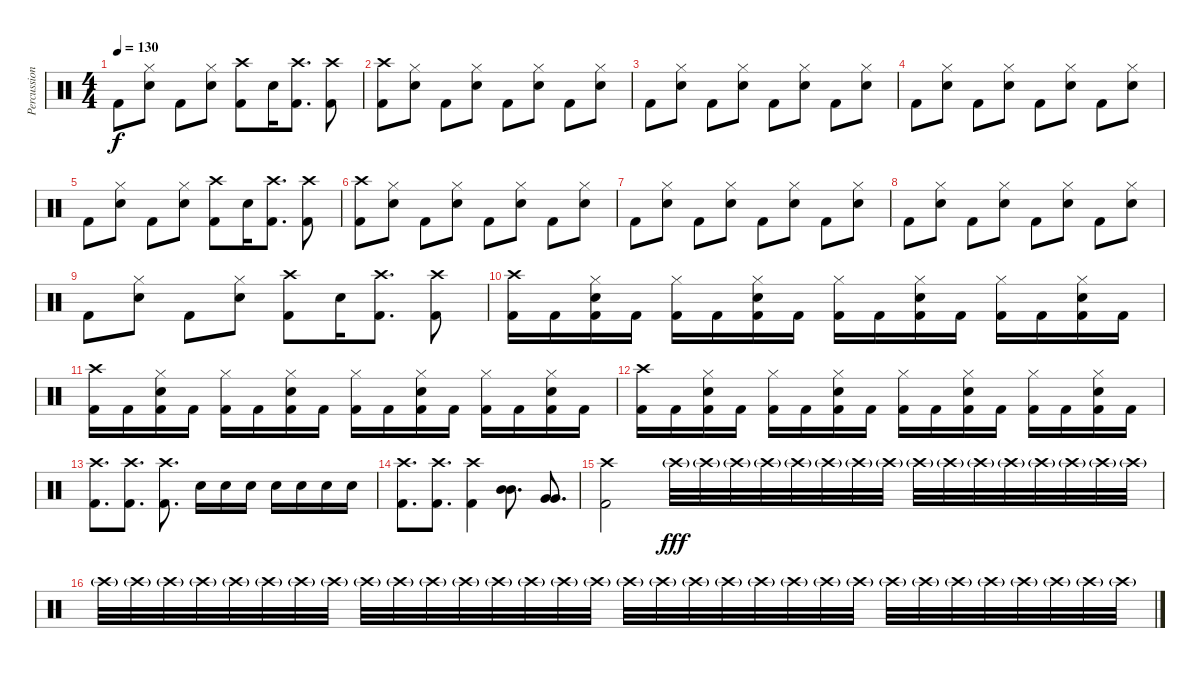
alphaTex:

\track ("Percussion" "Percussion") {instrument percussion}
\staff {score}
\articulation defaults
\ts (4 4)
\tempo 130
\clef neutral
\ks c "Kick (hit) 2".8{dy f}
("Hi-Hat (closed)" "Snare (hit) 2").8 "Kick (hit) 2".8 ("Hi-Hat (closed)" "Snare (hit) 2").8 ("Crash high (hit)" "Kick (hit) 2").8 "Snare (hit) 2".16 ("Crash high (hit)" "Kick (hit) 2").8{d} ("Crash high (hit)" "Kick (hit) 2").8 |
("Crash high (hit)" "Kick (hit) 2").8 ("Hi-Hat (closed)" "Snare (hit) 2").8 "Kick (hit) 2".8 ("Hi-Hat (closed)" "Snare (hit) 2").8 "Kick (hit) 2".8 ("Hi-Hat (closed)" "Snare (hit) 2").8 "Kick (hit) 2".8 ("Hi-Hat (closed)" "Snare (hit) 2").8 |
"Kick (hit) 2".8 ("Hi-Hat (closed)" "Snare (hit) 2").8 "Kick (hit) 2".8 ("Hi-Hat (closed)" "Snare (hit) 2").8 "Kick (hit) 2".8 ("Hi-Hat (closed)" "Snare (hit) 2").8 "Kick (hit) 2".8 ("Hi-Hat (closed)" "Snare (hit) 2").8 |
"Kick (hit) 2".8 ("Hi-Hat (closed)" "Snare (hit) 2").8 "Kick (hit) 2".8 ("Hi-Hat (closed)" "Snare (hit) 2").8 "Kick (hit) 2".8 ("Hi-Hat (closed)" "Snare (hit) 2").8 "Kick (hit) 2".8 ("Hi-Hat (closed)" "Snare (hit) 2").8 |
"Kick (hit) 2".8 ("Hi-Hat (closed)" "Snare (hit) 2").8 "Kick (hit) 2".8 ("Hi-Hat (closed)" "Snare (hit) 2").8 ("Crash high (hit)" "Kick (hit) 2").8 "Snare (hit) 2".16 ("Crash high (hit)" "Kick (hit) 2").8{d} ("Crash high (hit)" "Kick (hit) 2").8 |
("Crash high (hit)" "Kick (hit) 2").8 ("Hi-Hat (closed)" "Snare (hit) 2").8 "Kick (hit) 2".8 ("Hi-Hat (closed)" "Snare (hit) 2").8 "Kick (hit) 2".8 ("Hi-Hat (closed)" "Snare (hit) 2").8 "Kick (hit) 2".8 ("Hi-Hat (closed)" "Snare (hit) 2").8 |
"Kick (hit) 2".8 ("Hi-Hat (closed)" "Snare (hit) 2").8 "Kick (hit) 2".8 ("Hi-Hat (closed)" "Snare (hit) 2").8 "Kick (hit) 2".8 ("Hi-Hat (closed)" "Snare (hit) 2").8 "Kick (hit) 2".8 ("Hi-Hat (closed)" "Snare (hit) 2").8 |
"Kick (hit) 2".8 ("Hi-Hat (closed)" "Snare (hit) 2").8 "Kick (hit) 2".8 ("Hi-Hat (closed)" "Snare (hit) 2").8 "Kick (hit) 2".8 ("Hi-Hat (closed)" "Snare (hit) 2").8 "Kick (hit) 2".8 ("Hi-Hat (closed)" "Snare (hit) 2").8 |
"Kick (hit) 2".8 ("Hi-Hat (closed)" "Snare (hit) 2").8 "Kick (hit) 2".8 ("Hi-Hat (closed)" "Snare (hit) 2").8 ("Crash high (hit)" "Kick (hit) 2").8 "Snare (hit) 2".16 ("Crash high (hit)" "Kick (hit) 2").8{d} ("Crash high (hit)" "Kick (hit) 2").8 |
("Crash high (hit)" "Kick (hit) 2").16 "Kick (hit) 2".16 ("Hi-Hat (closed)" "Snare (hit) 2" "Kick (hit) 2").16 "Kick (hit) 2".16 ("Hi-Hat (closed)" "Kick (hit) 2").16 "Kick (hit) 2".16 ("Hi-Hat (closed)" "Snare (hit) 2" "Kick (hit) 2").16 "Kick (hit) 2".16 ("Hi-Hat (closed)" "Kick (hit) 2").16 "Kick (hit) 2".16 ("Hi-Hat (closed)" "Snare (hit) 2" "Kick (hit) 2").16 "Kick (hit) 2".16 ("Hi-Hat (closed)" "Kick (hit) 2").16 "Kick (hit) 2".16 ("Hi-Hat (closed)" "Snare (hit) 2" "Kick (hit) 2").16 "Kick (hit) 2".16 |
("Crash high (hit)" "Kick (hit) 2").16 "Kick (hit) 2".16 ("Hi-Hat (closed)" "Snare (hit) 2" "Kick (hit) 2").16 "Kick (hit) 2".16 ("Hi-Hat (closed)" "Kick (hit) 2").16 "Kick (hit) 2".16 ("Hi-Hat (closed)" "Snare (hit) 2" "Kick (hit) 2").16 "Kick (hit) 2".16 ("Hi-Hat (closed)" "Kick (hit) 2").16 "Kick (hit) 2".16 ("Hi-Hat (closed)" "Snare (hit) 2" "Kick (hit) 2").16 "Kick (hit) 2".16 ("Hi-Hat (closed)" "Kick (hit) 2").16 "Kick (hit) 2".16 ("Hi-Hat (closed)" "Snare (hit) 2" "Kick (hit) 2").16 "Kick (hit) 2".16 |
("Crash high (hit)" "Kick (hit) 2").16 "Kick (hit) 2".16 ("Hi-Hat (closed)" "Snare (hit) 2" "Kick (hit) 2").16 "Kick (hit) 2".16 ("Hi-Hat (closed)" "Kick (hit) 2").16 "Kick (hit) 2".16 ("Hi-Hat (closed)" "Snare (hit) 2" "Kick (hit) 2").16 "Kick (hit) 2".16 ("Hi-Hat (closed)" "Kick (hit) 2").16 "Kick (hit) 2".16 ("Hi-Hat (closed)" "Snare (hit) 2" "Kick (hit) 2").16 "Kick (hit) 2".16 ("Hi-Hat (closed)" "Kick (hit) 2").16 "Kick (hit) 2".16 ("Hi-Hat (closed)" "Snare (hit) 2" "Kick (hit) 2").16 "Kick (hit) 2".16 |
("Crash high (hit)" "Kick (hit) 2").8{d} ("Crash high (hit)" "Kick (hit) 2").8{d} ("Crash high (hit)" "Kick (hit) 2").8{d} "Snare (hit) 2".16 "Snare (hit) 2".16 "Snare (hit) 2".16 "Snare (hit) 2".16 "Snare (hit) 2".16 "Snare (hit) 2".16 "Snare (hit) 2".16 |
("Crash high (hit)" "Kick (hit) 2").8{d} ("Crash high (hit)" "Kick (hit) 2").8{d} ("Crash high (hit)" "Kick (hit) 2").4 ("Mid Tom (hit)" "Mid Tom (hit)").8{d} ("Very Low Tom (hit)" "Very Low Tom (hit)").8{d} |
("Crash high (hit)" "Kick (hit) 2").2 "Crash high (hit)"{g}.32{dy fff} "Crash high (hit)"{g}.32 "Crash high (hit)"{g}.32 "Crash high (hit)"{g}.32 "Crash high (hit)"{g}.32 "Crash high (hit)"{g}.32 "Crash high (hit)"{g}.32 "Crash high (hit)"{g}.32 "Crash high (hit)"{g}.32 "Crash high (hit)"{g}.32 "Crash high (hit)"{g}.32 "Crash high (hit)"{g}.32 "Crash high (hit)"{g}.32 "Crash high (hit)"{g}.32 "Crash high (hit)"{g}.32 "Crash high (hit)"{g}.32 |
"Crash high (hit)"{g}.32 "Crash high (hit)"{g}.32 "Crash high (hit)"{g}.32 "Crash high (hit)"{g}.32 "Crash high (hit)"{g}.32 "Crash high (hit)"{g}.32 "Crash high (hit)"{g}.32 "Crash high (hit)"{g}.32 "Crash high (hit)"{g}.32 "Crash high (hit)"{g}.32 "Crash high (hit)"{g}.32 "Crash high (hit)"{g}.32 "Crash high (hit)"{g}.32 "Crash high (hit)"{g}.32 "Crash high (hit)"{g}.32 "Crash high (hit)"{g}.32 "Crash high (hit)"{g}.32 "Crash high (hit)"{g}.32 "Crash high (hit)"{g}.32 "Crash high (hit)"{g}.32 "Crash high (hit)"{g}.32 "Crash high (hit)"{g}.32 "Crash high (hit)"{g}.32 "Crash high (hit)"{g}.32 "Crash high (hit)"{g}.32 "Crash high (hit)"{g}.32 "Crash high (hit)"{g}.32 "Crash high (hit)"{g}.32 "Crash high (hit)"{g}.32 "Crash high (hit)"{g}.32 "Crash high (hit)"{g}.32 "Crash high (hit)"{g}.32
